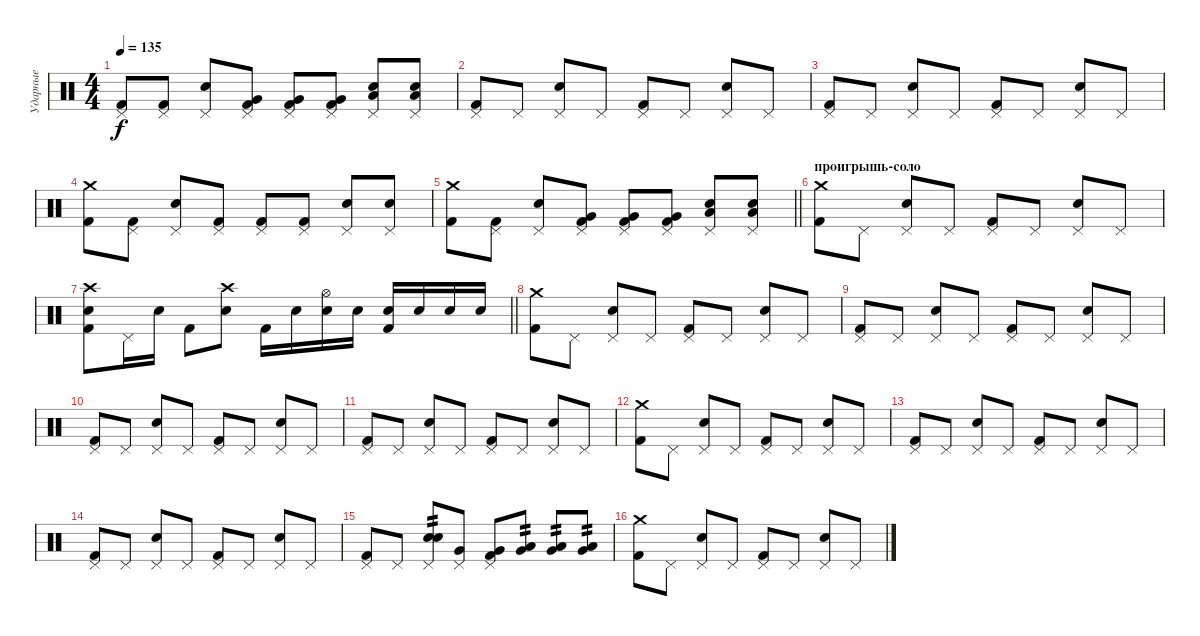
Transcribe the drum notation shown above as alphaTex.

\track ("Ударные" "Ударные") {instrument percussion}
\staff {score}
\articulation defaults
\ts (4 4)
\tempo 135
\clef neutral
\ks c
("Pedal Hi-Hat (hit)" "Kick (hit) 2").8{dy f} ("Pedal Hi-Hat (hit)" "Kick (hit) 2").8 ("Pedal Hi-Hat (hit)" "Electric Snare (hit)").8 ("Pedal Hi-Hat (hit)" "Very Low Tom (hit)" "Kick (hit) 2").8 ("Pedal Hi-Hat (hit)" "Very Low Tom (hit)" "Kick (hit) 2").8 ("Pedal Hi-Hat (hit)" "Very Low Tom (hit)" "Kick (hit) 2").8 ("Pedal Hi-Hat (hit)" "Low Floor Tom (hit)" "Electric Snare (hit)").8 ("Pedal Hi-Hat (hit)" "Low Floor Tom (hit)" "Electric Snare (hit)").8 |
("Pedal Hi-Hat (hit)" "Kick (hit) 2").8 "Pedal Hi-Hat (hit)".8 ("Pedal Hi-Hat (hit)" "Electric Snare (hit)").8 "Pedal Hi-Hat (hit)".8 ("Pedal Hi-Hat (hit)" "Kick (hit) 2").8 "Pedal Hi-Hat (hit)".8 ("Pedal Hi-Hat (hit)" "Electric Snare (hit)").8 "Pedal Hi-Hat (hit)".8 |
("Pedal Hi-Hat (hit)" "Kick (hit) 2").8 "Pedal Hi-Hat (hit)".8 ("Pedal Hi-Hat (hit)" "Electric Snare (hit)").8 "Pedal Hi-Hat (hit)".8 ("Pedal Hi-Hat (hit)" "Kick (hit) 2").8 "Pedal Hi-Hat (hit)".8 ("Pedal Hi-Hat (hit)" "Electric Snare (hit)").8 "Pedal Hi-Hat (hit)".8 |
("Crash medium (hit)" "Kick (hit) 2").8 ("Pedal Hi-Hat (hit)" "Kick (hit) 2").8 ("Pedal Hi-Hat (hit)" "Electric Snare (hit)").8 ("Pedal Hi-Hat (hit)" "Kick (hit) 2").8 ("Pedal Hi-Hat (hit)" "Kick (hit) 2").8 ("Pedal Hi-Hat (hit)" "Kick (hit) 2").8 ("Pedal Hi-Hat (hit)" "Electric Snare (hit)").8 ("Pedal Hi-Hat (hit)" "Electric Snare (hit)").8 |
\barLineRight lightlight
("Crash medium (hit)" "Kick (hit) 2").8 ("Pedal Hi-Hat (hit)" "Kick (hit) 2").8 ("Pedal Hi-Hat (hit)" "Electric Snare (hit)").8 ("Pedal Hi-Hat (hit)" "Very Low Tom (hit)" "Kick (hit) 2").8 ("Pedal Hi-Hat (hit)" "Very Low Tom (hit)" "Kick (hit) 2").8 ("Pedal Hi-Hat (hit)" "Very Low Tom (hit)" "Kick (hit) 2").8 ("Pedal Hi-Hat (hit)" "Low Floor Tom (hit)" "Electric Snare (hit)").8 ("Pedal Hi-Hat (hit)" "Low Floor Tom (hit)" "Electric Snare (hit)").8 |
\section ("" "проигрышь-соло")
("Crash medium (hit)" "Kick (hit) 2").8 "Pedal Hi-Hat (hit)".8 ("Pedal Hi-Hat (hit)" "Electric Snare (hit)").8 "Pedal Hi-Hat (hit)".8 ("Pedal Hi-Hat (hit)" "Kick (hit) 2").8 "Pedal Hi-Hat (hit)".8 ("Pedal Hi-Hat (hit)" "Electric Snare (hit)").8 "Pedal Hi-Hat (hit)".8 |
\barLineRight lightlight
("Electric Snare (hit)" "Crash high (hit)" "Kick (hit) 2").8 "Pedal Hi-Hat (hit)".16 "Electric Snare (hit)".16 "Kick (hit) 2".8 ("Electric Snare (hit)" "Crash high (hit)").8 "Kick (hit) 2".16 "Electric Snare (hit)".16 ("Electric Snare (hit)" "Hi-Hat (open)").16 "Electric Snare (hit)".16 ("Electric Snare (hit)" "Kick (hit) 2").16 "Electric Snare (hit)".16 "Electric Snare (hit)".16 "Electric Snare (hit)".16 |
("Crash medium (hit)" "Kick (hit) 2").8 "Pedal Hi-Hat (hit)".8 ("Pedal Hi-Hat (hit)" "Electric Snare (hit)").8 "Pedal Hi-Hat (hit)".8 ("Pedal Hi-Hat (hit)" "Kick (hit) 2").8 "Pedal Hi-Hat (hit)".8 ("Pedal Hi-Hat (hit)" "Electric Snare (hit)").8 "Pedal Hi-Hat (hit)".8 |
("Pedal Hi-Hat (hit)" "Kick (hit) 2").8 "Pedal Hi-Hat (hit)".8 ("Pedal Hi-Hat (hit)" "Electric Snare (hit)").8 "Pedal Hi-Hat (hit)".8 ("Pedal Hi-Hat (hit)" "Kick (hit) 2").8 "Pedal Hi-Hat (hit)".8 ("Pedal Hi-Hat (hit)" "Electric Snare (hit)").8 "Pedal Hi-Hat (hit)".8 |
("Pedal Hi-Hat (hit)" "Kick (hit) 2").8 "Pedal Hi-Hat (hit)".8 ("Pedal Hi-Hat (hit)" "Electric Snare (hit)").8 "Pedal Hi-Hat (hit)".8 ("Pedal Hi-Hat (hit)" "Kick (hit) 2").8 "Pedal Hi-Hat (hit)".8 ("Pedal Hi-Hat (hit)" "Electric Snare (hit)").8 "Pedal Hi-Hat (hit)".8 |
("Pedal Hi-Hat (hit)" "Kick (hit) 2").8 "Pedal Hi-Hat (hit)".8 ("Pedal Hi-Hat (hit)" "Electric Snare (hit)").8 "Pedal Hi-Hat (hit)".8 ("Pedal Hi-Hat (hit)" "Kick (hit) 2").8 "Pedal Hi-Hat (hit)".8 ("Pedal Hi-Hat (hit)" "Electric Snare (hit)").8 "Pedal Hi-Hat (hit)".8 |
("Crash medium (hit)" "Kick (hit) 2").8 "Pedal Hi-Hat (hit)".8 ("Pedal Hi-Hat (hit)" "Electric Snare (hit)").8 "Pedal Hi-Hat (hit)".8 ("Pedal Hi-Hat (hit)" "Kick (hit) 2").8 "Pedal Hi-Hat (hit)".8 ("Pedal Hi-Hat (hit)" "Electric Snare (hit)").8 "Pedal Hi-Hat (hit)".8 |
("Pedal Hi-Hat (hit)" "Kick (hit) 2").8 "Pedal Hi-Hat (hit)".8 ("Pedal Hi-Hat (hit)" "Electric Snare (hit)").8 "Pedal Hi-Hat (hit)".8 ("Pedal Hi-Hat (hit)" "Kick (hit) 2").8 "Pedal Hi-Hat (hit)".8 ("Pedal Hi-Hat (hit)" "Electric Snare (hit)").8 "Pedal Hi-Hat (hit)".8 |
("Pedal Hi-Hat (hit)" "Kick (hit) 2").8 "Pedal Hi-Hat (hit)".8 ("Pedal Hi-Hat (hit)" "Electric Snare (hit)").8 "Pedal Hi-Hat (hit)".8 ("Pedal Hi-Hat (hit)" "Kick (hit) 2").8 "Pedal Hi-Hat (hit)".8 ("Pedal Hi-Hat (hit)" "Electric Snare (hit)").8 "Pedal Hi-Hat (hit)".8 |
("Pedal Hi-Hat (hit)" "Kick (hit) 2").8 "Pedal Hi-Hat (hit)".8 ("Electric Snare (hit)" "Pedal Hi-Hat (hit)" "Electric Snare (hit)").8{tp 2} ("Very Low Tom (hit)" "Pedal Hi-Hat (hit)").8 ("Very Low Tom (hit)" "Pedal Hi-Hat (hit)" "Kick (hit) 2").8 ("Low Tom (hit)" "Very Low Tom (hit)").8{tp 2} ("Low Tom (hit)" "Very Low Tom (hit)").8{tp 2} ("Low Tom (hit)" "Very Low Tom (hit)").8{tp 2} |
("Crash medium (hit)" "Kick (hit) 2").8 "Pedal Hi-Hat (hit)".8 ("Pedal Hi-Hat (hit)" "Electric Snare (hit)").8 "Pedal Hi-Hat (hit)".8 ("Pedal Hi-Hat (hit)" "Kick (hit) 2").8 "Pedal Hi-Hat (hit)".8 ("Pedal Hi-Hat (hit)" "Electric Snare (hit)").8 "Pedal Hi-Hat (hit)".8
